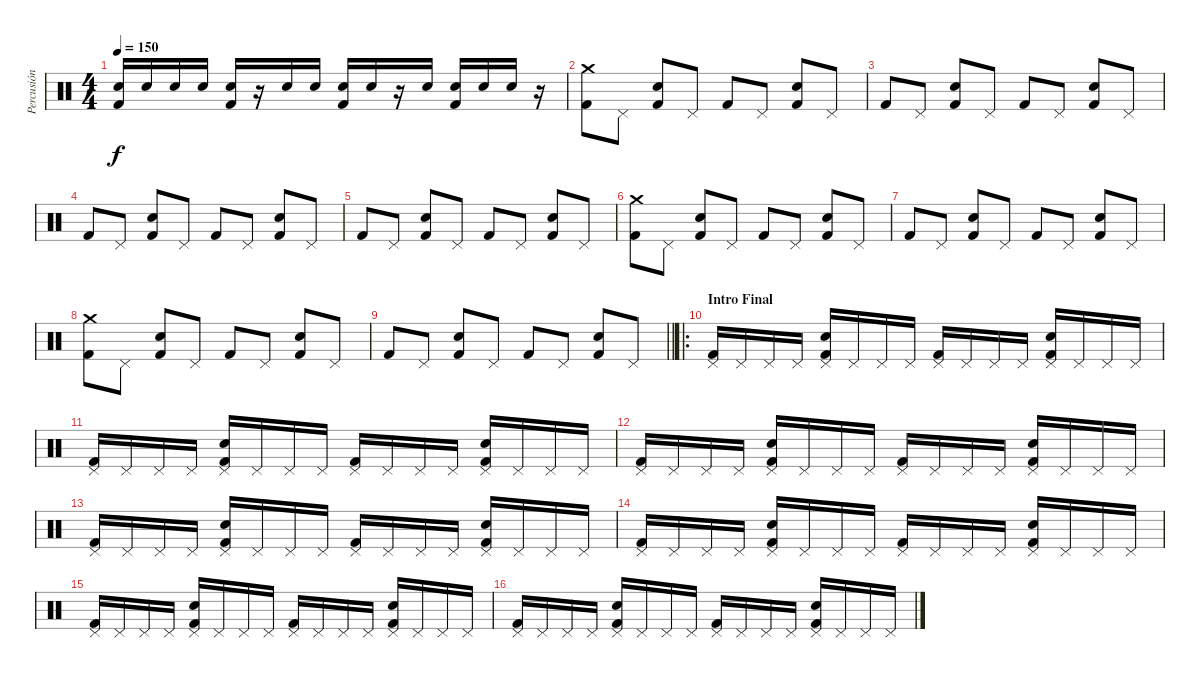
\track ("Percusión" "Percusión") {instrument percussion}
\staff {score}
\articulation defaults
\ts (4 4)
\tempo 150
\clef neutral
\ks c
("Electric Snare (hit)" "Kick (hit) 2").16{dy f} "Electric Snare (hit)".16 "Electric Snare (hit)".16 "Electric Snare (hit)".16 ("Electric Snare (hit)" "Kick (hit) 2").16 r.16 "Electric Snare (hit)".16 "Electric Snare (hit)".16 ("Electric Snare (hit)" "Kick (hit) 2").16 "Electric Snare (hit)".16 r.16 "Electric Snare (hit)".16 ("Electric Snare (hit)" "Kick (hit) 2").16 "Electric Snare (hit)".16 "Electric Snare (hit)".16 r.16 |
("Crash medium (hit)" "Kick (hit) 2").8 "Pedal Hi-Hat (hit)".8 ("Electric Snare (hit)" "Kick (hit) 2").8 "Pedal Hi-Hat (hit)".8 "Kick (hit) 2".8 "Pedal Hi-Hat (hit)".8 ("Electric Snare (hit)" "Kick (hit) 2").8 "Pedal Hi-Hat (hit)".8 |
"Kick (hit) 2".8 "Pedal Hi-Hat (hit)".8 ("Electric Snare (hit)" "Kick (hit) 2").8 "Pedal Hi-Hat (hit)".8 "Kick (hit) 2".8 "Pedal Hi-Hat (hit)".8 ("Electric Snare (hit)" "Kick (hit) 2").8 "Pedal Hi-Hat (hit)".8 |
"Kick (hit) 2".8 "Pedal Hi-Hat (hit)".8 ("Electric Snare (hit)" "Kick (hit) 2").8 "Pedal Hi-Hat (hit)".8 "Kick (hit) 2".8 "Pedal Hi-Hat (hit)".8 ("Electric Snare (hit)" "Kick (hit) 2").8 "Pedal Hi-Hat (hit)".8 |
"Kick (hit) 2".8 "Pedal Hi-Hat (hit)".8 ("Electric Snare (hit)" "Kick (hit) 2").8 "Pedal Hi-Hat (hit)".8 "Kick (hit) 2".8 "Pedal Hi-Hat (hit)".8 ("Electric Snare (hit)" "Kick (hit) 2").8 "Pedal Hi-Hat (hit)".8 |
("Crash medium (hit)" "Kick (hit) 2").8 "Pedal Hi-Hat (hit)".8 ("Electric Snare (hit)" "Kick (hit) 2").8 "Pedal Hi-Hat (hit)".8 "Kick (hit) 2".8 "Pedal Hi-Hat (hit)".8 ("Electric Snare (hit)" "Kick (hit) 2").8 "Pedal Hi-Hat (hit)".8 |
"Kick (hit) 2".8 "Pedal Hi-Hat (hit)".8 ("Electric Snare (hit)" "Kick (hit) 2").8 "Pedal Hi-Hat (hit)".8 "Kick (hit) 2".8 "Pedal Hi-Hat (hit)".8 ("Electric Snare (hit)" "Kick (hit) 2").8 "Pedal Hi-Hat (hit)".8 |
("Crash medium (hit)" "Kick (hit) 2").8 "Pedal Hi-Hat (hit)".8 ("Electric Snare (hit)" "Kick (hit) 2").8 "Pedal Hi-Hat (hit)".8 "Kick (hit) 2".8 "Pedal Hi-Hat (hit)".8 ("Electric Snare (hit)" "Kick (hit) 2").8 "Pedal Hi-Hat (hit)".8 |
\barLineRight lightlight "Kick (hit) 2".8 "Pedal Hi-Hat (hit)".8
("Electric Snare (hit)" "Kick (hit) 2").8 "Pedal Hi-Hat (hit)".8 "Kick (hit) 2".8 "Pedal Hi-Hat (hit)".8 ("Electric Snare (hit)" "Kick (hit) 2").8 "Pedal Hi-Hat (hit)".8 |
\ro
\section ("" "Intro Final")
("Pedal Hi-Hat (hit)" "Kick (hit) 2").16 "Pedal Hi-Hat (hit)".16 "Pedal Hi-Hat (hit)".16 "Pedal Hi-Hat (hit)".16 ("Pedal Hi-Hat (hit)" "Electric Snare (hit)" "Kick (hit) 2").16 "Pedal Hi-Hat (hit)".16 "Pedal Hi-Hat (hit)".16 "Pedal Hi-Hat (hit)".16 ("Pedal Hi-Hat (hit)" "Kick (hit) 2").16 "Pedal Hi-Hat (hit)".16 "Pedal Hi-Hat (hit)".16 "Pedal Hi-Hat (hit)".16 ("Pedal Hi-Hat (hit)" "Electric Snare (hit)" "Kick (hit) 2").16 "Pedal Hi-Hat (hit)".16 "Pedal Hi-Hat (hit)".16 "Pedal Hi-Hat (hit)".16 |
("Pedal Hi-Hat (hit)" "Kick (hit) 2").16 "Pedal Hi-Hat (hit)".16 "Pedal Hi-Hat (hit)".16 "Pedal Hi-Hat (hit)".16 ("Pedal Hi-Hat (hit)" "Electric Snare (hit)" "Kick (hit) 2").16 "Pedal Hi-Hat (hit)".16 "Pedal Hi-Hat (hit)".16 "Pedal Hi-Hat (hit)".16 ("Pedal Hi-Hat (hit)" "Kick (hit) 2").16 "Pedal Hi-Hat (hit)".16 "Pedal Hi-Hat (hit)".16 "Pedal Hi-Hat (hit)".16 ("Pedal Hi-Hat (hit)" "Electric Snare (hit)" "Kick (hit) 2").16 "Pedal Hi-Hat (hit)".16 "Pedal Hi-Hat (hit)".16 "Pedal Hi-Hat (hit)".16 |
("Pedal Hi-Hat (hit)" "Kick (hit) 2").16 "Pedal Hi-Hat (hit)".16 "Pedal Hi-Hat (hit)".16 "Pedal Hi-Hat (hit)".16 ("Pedal Hi-Hat (hit)" "Electric Snare (hit)" "Kick (hit) 2").16 "Pedal Hi-Hat (hit)".16 "Pedal Hi-Hat (hit)".16 "Pedal Hi-Hat (hit)".16 ("Pedal Hi-Hat (hit)" "Kick (hit) 2").16 "Pedal Hi-Hat (hit)".16 "Pedal Hi-Hat (hit)".16 "Pedal Hi-Hat (hit)".16 ("Pedal Hi-Hat (hit)" "Electric Snare (hit)" "Kick (hit) 2").16 "Pedal Hi-Hat (hit)".16 "Pedal Hi-Hat (hit)".16 "Pedal Hi-Hat (hit)".16 |
("Pedal Hi-Hat (hit)" "Kick (hit) 2").16 "Pedal Hi-Hat (hit)".16 "Pedal Hi-Hat (hit)".16 "Pedal Hi-Hat (hit)".16 ("Pedal Hi-Hat (hit)" "Electric Snare (hit)" "Kick (hit) 2").16 "Pedal Hi-Hat (hit)".16 "Pedal Hi-Hat (hit)".16 "Pedal Hi-Hat (hit)".16 ("Pedal Hi-Hat (hit)" "Kick (hit) 2").16 "Pedal Hi-Hat (hit)".16 "Pedal Hi-Hat (hit)".16 "Pedal Hi-Hat (hit)".16 ("Pedal Hi-Hat (hit)" "Electric Snare (hit)" "Kick (hit) 2").16 "Pedal Hi-Hat (hit)".16 "Pedal Hi-Hat (hit)".16 "Pedal Hi-Hat (hit)".16 |
("Pedal Hi-Hat (hit)" "Kick (hit) 2").16 "Pedal Hi-Hat (hit)".16 "Pedal Hi-Hat (hit)".16 "Pedal Hi-Hat (hit)".16 ("Pedal Hi-Hat (hit)" "Electric Snare (hit)" "Kick (hit) 2").16 "Pedal Hi-Hat (hit)".16 "Pedal Hi-Hat (hit)".16 "Pedal Hi-Hat (hit)".16 ("Pedal Hi-Hat (hit)" "Kick (hit) 2").16 "Pedal Hi-Hat (hit)".16 "Pedal Hi-Hat (hit)".16 "Pedal Hi-Hat (hit)".16 ("Pedal Hi-Hat (hit)" "Electric Snare (hit)" "Kick (hit) 2").16 "Pedal Hi-Hat (hit)".16 "Pedal Hi-Hat (hit)".16 "Pedal Hi-Hat (hit)".16 |
("Pedal Hi-Hat (hit)" "Kick (hit) 2").16 "Pedal Hi-Hat (hit)".16 "Pedal Hi-Hat (hit)".16 "Pedal Hi-Hat (hit)".16 ("Pedal Hi-Hat (hit)" "Electric Snare (hit)" "Kick (hit) 2").16 "Pedal Hi-Hat (hit)".16 "Pedal Hi-Hat (hit)".16 "Pedal Hi-Hat (hit)".16 ("Pedal Hi-Hat (hit)" "Kick (hit) 2").16 "Pedal Hi-Hat (hit)".16 "Pedal Hi-Hat (hit)".16 "Pedal Hi-Hat (hit)".16 ("Pedal Hi-Hat (hit)" "Electric Snare (hit)" "Kick (hit) 2").16 "Pedal Hi-Hat (hit)".16 "Pedal Hi-Hat (hit)".16 "Pedal Hi-Hat (hit)".16 |
("Pedal Hi-Hat (hit)" "Kick (hit) 2").16 "Pedal Hi-Hat (hit)".16 "Pedal Hi-Hat (hit)".16 "Pedal Hi-Hat (hit)".16 ("Pedal Hi-Hat (hit)" "Electric Snare (hit)" "Kick (hit) 2").16 "Pedal Hi-Hat (hit)".16 "Pedal Hi-Hat (hit)".16 "Pedal Hi-Hat (hit)".16 ("Pedal Hi-Hat (hit)" "Kick (hit) 2").16 "Pedal Hi-Hat (hit)".16 "Pedal Hi-Hat (hit)".16 "Pedal Hi-Hat (hit)".16 ("Pedal Hi-Hat (hit)" "Electric Snare (hit)" "Kick (hit) 2").16 "Pedal Hi-Hat (hit)".16 "Pedal Hi-Hat (hit)".16 "Pedal Hi-Hat (hit)".16
